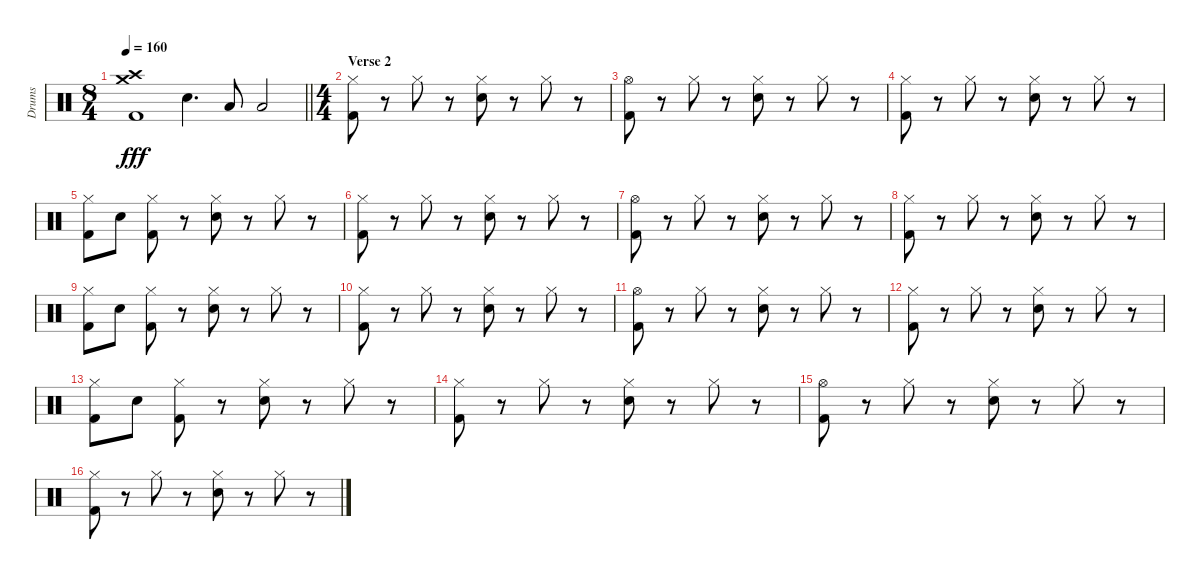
\track ("Drums" "Drums") {instrument percussion}
\staff {score}
\articulation defaults
\ts (8 4)
\tempo 160
\clef neutral
\barLineRight lightlight
\ks c
("Crash high (hit)" "Crash medium (hit)" "Kick (hit) 2").1{dy fff} "Snare (hit) 2".4{d} "Low Tom (hit)".8 "Low Floor Tom (hit)".2 |
\ts (4 4)
\section ("" "Verse 2")
("Hi-Hat (closed)" "Kick (hit) 2").8 r.8 "Hi-Hat (closed)".8 r.8 ("Hi-Hat (closed)" "Snare (hit) 2").8 r.8 "Hi-Hat (closed)".8 r.8 |
("Hi-Hat (open)" "Kick (hit) 2").8 r.8 "Hi-Hat (closed)".8 r.8 ("Hi-Hat (closed)" "Snare (hit) 2").8 r.8 "Hi-Hat (closed)".8 r.8 |
("Hi-Hat (closed)" "Kick (hit) 2").8 r.8 "Hi-Hat (closed)".8 r.8 ("Hi-Hat (closed)" "Snare (hit) 2").8 r.8 "Hi-Hat (closed)".8 r.8 |
("Hi-Hat (closed)" "Kick (hit) 2").8 "Snare (hit) 2".8 ("Hi-Hat (closed)" "Kick (hit) 2").8 r.8 ("Hi-Hat (closed)" "Snare (hit) 2").8 r.8 "Hi-Hat (closed)".8 r.8 |
("Hi-Hat (closed)" "Kick (hit) 2").8 r.8 "Hi-Hat (closed)".8 r.8 ("Hi-Hat (closed)" "Snare (hit) 2").8 r.8 "Hi-Hat (closed)".8 r.8 |
("Hi-Hat (open)" "Kick (hit) 2").8 r.8 "Hi-Hat (closed)".8 r.8 ("Hi-Hat (closed)" "Snare (hit) 2").8 r.8 "Hi-Hat (closed)".8 r.8 |
("Hi-Hat (closed)" "Kick (hit) 2").8 r.8 "Hi-Hat (closed)".8 r.8 ("Hi-Hat (closed)" "Snare (hit) 2").8 r.8 "Hi-Hat (closed)".8 r.8 |
("Hi-Hat (closed)" "Kick (hit) 2").8 "Snare (hit) 2".8 ("Hi-Hat (closed)" "Kick (hit) 2").8 r.8 ("Hi-Hat (closed)" "Snare (hit) 2").8 r.8 "Hi-Hat (closed)".8 r.8 |
("Hi-Hat (closed)" "Kick (hit) 2").8 r.8 "Hi-Hat (closed)".8 r.8 ("Hi-Hat (closed)" "Snare (hit) 2").8 r.8 "Hi-Hat (closed)".8 r.8 |
("Hi-Hat (open)" "Kick (hit) 2").8 r.8 "Hi-Hat (closed)".8 r.8 ("Hi-Hat (closed)" "Snare (hit) 2").8 r.8 "Hi-Hat (closed)".8 r.8 |
("Hi-Hat (closed)" "Kick (hit) 2").8 r.8 "Hi-Hat (closed)".8 r.8 ("Hi-Hat (closed)" "Snare (hit) 2").8 r.8 "Hi-Hat (closed)".8 r.8 |
("Hi-Hat (closed)" "Kick (hit) 2").8 "Snare (hit) 2".8 ("Hi-Hat (closed)" "Kick (hit) 2").8 r.8 ("Hi-Hat (closed)" "Snare (hit) 2").8 r.8 "Hi-Hat (closed)".8 r.8 |
("Hi-Hat (closed)" "Kick (hit) 2").8 r.8 "Hi-Hat (closed)".8 r.8 ("Hi-Hat (closed)" "Snare (hit) 2").8 r.8 "Hi-Hat (closed)".8 r.8 |
("Hi-Hat (open)" "Kick (hit) 2").8 r.8 "Hi-Hat (closed)".8 r.8 ("Hi-Hat (closed)" "Snare (hit) 2").8 r.8 "Hi-Hat (closed)".8 r.8 |
("Hi-Hat (closed)" "Kick (hit) 2").8 r.8 "Hi-Hat (closed)".8 r.8 ("Hi-Hat (closed)" "Snare (hit) 2").8 r.8 "Hi-Hat (closed)".8 r.8
